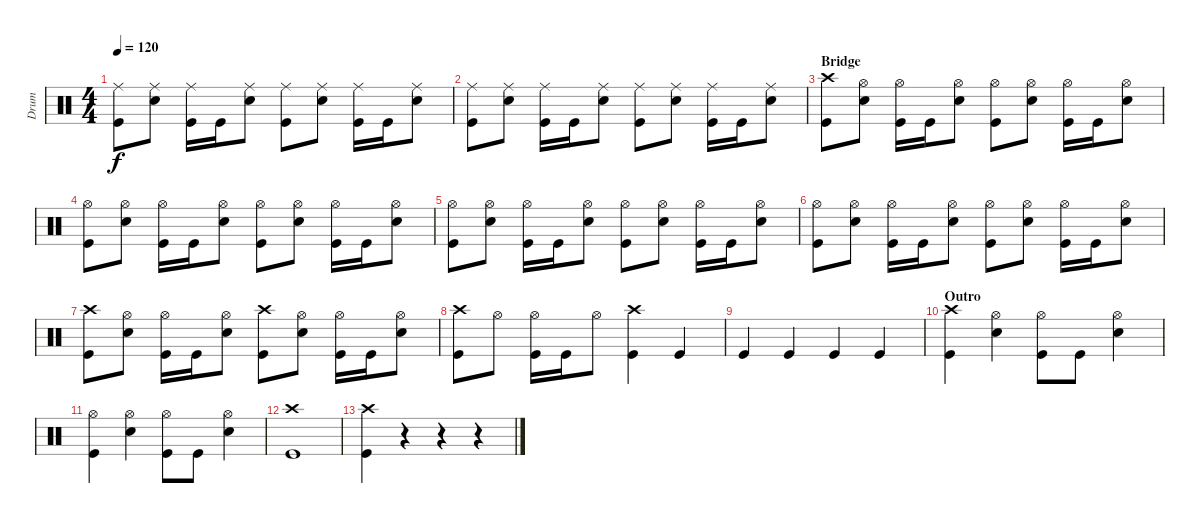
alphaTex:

\track ("Drum" "Drum") {instrument percussion}
\staff {score}
\articulation defaults
\ts (4 4)
\tempo 120
\clef neutral
\ks c
("Ride (middle)" "Kick (hit)").8{dy f} ("Ride (middle)" "Electric Snare (hit)").8 ("Ride (middle)" "Kick (hit)").16 "Kick (hit)".16 ("Ride (middle)" "Electric Snare (hit)").8 ("Ride (middle)" "Kick (hit)").8 ("Ride (middle)" "Electric Snare (hit)").8 ("Ride (middle)" "Kick (hit)").16 "Kick (hit)".16 ("Ride (middle)" "Electric Snare (hit)").8 |
("Ride (middle)" "Kick (hit)").8 ("Ride (middle)" "Electric Snare (hit)").8 ("Ride (middle)" "Kick (hit)").16 "Kick (hit)".16 ("Ride (middle)" "Electric Snare (hit)").8 ("Ride (middle)" "Kick (hit)").8 ("Ride (middle)" "Electric Snare (hit)").8 ("Ride (middle)" "Kick (hit)").16 "Kick (hit)".16 ("Ride (middle)" "Electric Snare (hit)").8 |
\section ("" "Bridge")
("Crash high (hit)" "Kick (hit)").8 ("Hi-Hat (open)" "Electric Snare (hit)").8 ("Hi-Hat (open)" "Kick (hit)").16 "Kick (hit)".16 ("Hi-Hat (open)" "Electric Snare (hit)").8 ("Hi-Hat (open)" "Kick (hit)").8 ("Hi-Hat (open)" "Electric Snare (hit)").8 ("Hi-Hat (open)" "Kick (hit)").16 "Kick (hit)".16 ("Hi-Hat (open)" "Electric Snare (hit)").8 |
("Hi-Hat (open)" "Kick (hit)").8 ("Hi-Hat (open)" "Electric Snare (hit)").8 ("Hi-Hat (open)" "Kick (hit)").16 "Kick (hit)".16 ("Hi-Hat (open)" "Electric Snare (hit)").8 ("Hi-Hat (open)" "Kick (hit)").8 ("Hi-Hat (open)" "Electric Snare (hit)").8 ("Hi-Hat (open)" "Kick (hit)").16 "Kick (hit)".16 ("Hi-Hat (open)" "Electric Snare (hit)").8 |
("Hi-Hat (open)" "Kick (hit)").8 ("Hi-Hat (open)" "Electric Snare (hit)").8 ("Hi-Hat (open)" "Kick (hit)").16 "Kick (hit)".16 ("Hi-Hat (open)" "Electric Snare (hit)").8 ("Hi-Hat (open)" "Kick (hit)").8 ("Hi-Hat (open)" "Electric Snare (hit)").8 ("Hi-Hat (open)" "Kick (hit)").16 "Kick (hit)".16 ("Hi-Hat (open)" "Electric Snare (hit)").8 |
("Hi-Hat (open)" "Kick (hit)").8 ("Hi-Hat (open)" "Electric Snare (hit)").8 ("Hi-Hat (open)" "Kick (hit)").16 "Kick (hit)".16 ("Hi-Hat (open)" "Electric Snare (hit)").8 ("Hi-Hat (open)" "Kick (hit)").8 ("Hi-Hat (open)" "Electric Snare (hit)").8 ("Hi-Hat (open)" "Kick (hit)").16 "Kick (hit)".16 ("Hi-Hat (open)" "Electric Snare (hit)").8 |
("Crash high (hit)" "Kick (hit)").8 ("Hi-Hat (open)" "Electric Snare (hit)").8 ("Hi-Hat (open)" "Kick (hit)").16 "Kick (hit)".16 ("Hi-Hat (open)" "Electric Snare (hit)").8 ("Crash high (hit)" "Kick (hit)").8 ("Hi-Hat (open)" "Electric Snare (hit)").8 ("Hi-Hat (open)" "Kick (hit)").16 "Kick (hit)".16 ("Hi-Hat (open)" "Electric Snare (hit)").8 |
("Crash high (hit)" "Kick (hit)").8 "Hi-Hat (open)".8 ("Hi-Hat (open)" "Kick (hit)").16 "Kick (hit)".16 "Hi-Hat (open)".8 ("Crash high (hit)" "Kick (hit)").4 "Kick (hit)".4 |
"Kick (hit)".4 "Kick (hit)".4 "Kick (hit)".4 "Kick (hit)".4 |
\section ("" "Outro")
("Crash high (hit)" "Kick (hit)").4 ("Hi-Hat (open)" "Electric Snare (hit)").4 ("Hi-Hat (open)" "Kick (hit)").8 "Kick (hit)".8 ("Hi-Hat (open)" "Electric Snare (hit)").4 |
("Hi-Hat (open)" "Kick (hit)").4 ("Hi-Hat (open)" "Electric Snare (hit)").4 ("Hi-Hat (open)" "Kick (hit)").8 "Kick (hit)".8 ("Hi-Hat (open)" "Electric Snare (hit)").4 |
("Crash high (hit)" "Kick (hit)").1 |
("Crash high (hit)" "Kick (hit)").4 r.4 r.4 r.4
